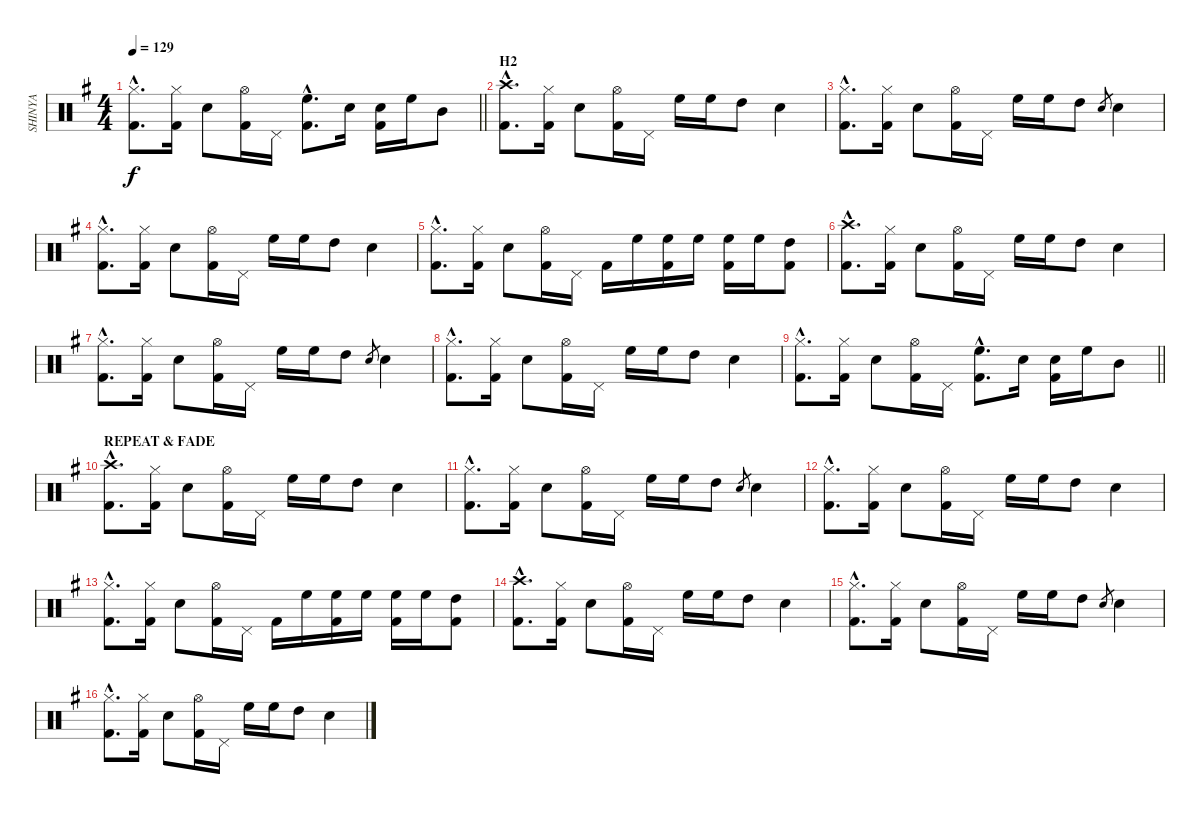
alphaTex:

\track ("SHINYA" "SHINYA") {instrument percussion}
\staff {score}
\articulation defaults
\ts (4 4)
\tempo 129
\clef neutral
\barLineRight lightlight
\ks g
("Hi-Hat (closed)"{hac} "Kick (hit) 2"{hac}).8{d dy f} ("Hi-Hat (closed)" "Kick (hit) 2").16 "Snare (hit) 2".8 ("Hi-Hat (open)" "Kick (hit) 2").16 "Pedal Hi-Hat (hit)".16 ("High Floor Tom (hit)"{hac} "Kick (hit) 2"{hac}).8{d} "Snare (hit) 2".16 ("Snare (hit) 2" "Kick (hit) 2").16 "High Floor Tom (hit)".16 "Mid Tom (hit)".8 |
\section ("" "H2")
("Crash high (hit)"{hac} "Kick (hit) 2"{hac}).8{d} ("Hi-Hat (closed)" "Kick (hit) 2").16 "Snare (hit) 2".8 ("Hi-Hat (open)" "Kick (hit) 2").16 "Pedal Hi-Hat (hit)".16 "High Floor Tom (hit)".16 "High Floor Tom (hit)".16 "High Tom (hit)".8 "Snare (hit) 2".4 |
("Hi-Hat (closed)"{hac} "Kick (hit) 2"{hac}).8{d} ("Hi-Hat (closed)" "Kick (hit) 2").16 "Snare (hit) 2".8 ("Hi-Hat (open)" "Kick (hit) 2").16 "Pedal Hi-Hat (hit)".16 "High Floor Tom (hit)".16 "High Floor Tom (hit)".16 "High Tom (hit)".8 "Snare (hit) 2".8{gr} "Snare (hit) 2".4 |
("Hi-Hat (closed)"{hac} "Kick (hit) 2"{hac}).8{d} ("Hi-Hat (closed)" "Kick (hit) 2").16 "Snare (hit) 2".8 ("Hi-Hat (open)" "Kick (hit) 2").16 "Pedal Hi-Hat (hit)".16 "High Floor Tom (hit)".16 "High Floor Tom (hit)".16 "High Tom (hit)".8 "Snare (hit) 2".4 |
("Hi-Hat (closed)"{hac} "Kick (hit) 2"{hac}).8{d} ("Hi-Hat (closed)" "Kick (hit) 2").16 "Snare (hit) 2".8 ("Hi-Hat (open)" "Kick (hit) 2").16 "Pedal Hi-Hat (hit)".16 "Kick (hit) 2".16 "High Floor Tom (hit)".16 ("High Floor Tom (hit)" "Kick (hit) 2").16 "High Floor Tom (hit)".16 ("High Floor Tom (hit)" "Kick (hit) 2").16 "High Floor Tom (hit)".16 ("High Tom (hit)" "Kick (hit) 2").8 |
("Crash high (hit)"{hac} "Kick (hit) 2"{hac}).8{d} ("Hi-Hat (closed)" "Kick (hit) 2").16 "Snare (hit) 2".8 ("Hi-Hat (open)" "Kick (hit) 2").16 "Pedal Hi-Hat (hit)".16 "High Floor Tom (hit)".16 "High Floor Tom (hit)".16 "High Tom (hit)".8 "Snare (hit) 2".4 |
("Hi-Hat (closed)"{hac} "Kick (hit) 2"{hac}).8{d} ("Hi-Hat (closed)" "Kick (hit) 2").16 "Snare (hit) 2".8 ("Hi-Hat (open)" "Kick (hit) 2").16 "Pedal Hi-Hat (hit)".16 "High Floor Tom (hit)".16 "High Floor Tom (hit)".16 "High Tom (hit)".8 "Snare (hit) 2".8{gr} "Snare (hit) 2".4 |
("Hi-Hat (closed)"{hac} "Kick (hit) 2"{hac}).8{d} ("Hi-Hat (closed)" "Kick (hit) 2").16 "Snare (hit) 2".8 ("Hi-Hat (open)" "Kick (hit) 2").16 "Pedal Hi-Hat (hit)".16 "High Floor Tom (hit)".16 "High Floor Tom (hit)".16 "High Tom (hit)".8 "Snare (hit) 2".4 |
\barLineRight lightlight
("Hi-Hat (closed)"{hac} "Kick (hit) 2"{hac}).8{d} ("Hi-Hat (closed)" "Kick (hit) 2").16 "Snare (hit) 2".8 ("Hi-Hat (open)" "Kick (hit) 2").16 "Pedal Hi-Hat (hit)".16 ("High Floor Tom (hit)"{hac} "Kick (hit) 2"{hac}).8{d} "Snare (hit) 2".16 ("Snare (hit) 2" "Kick (hit) 2").16 "High Floor Tom (hit)".16 "Mid Tom (hit)".8 |
\section ("" "REPEAT & FADE")
("Crash high (hit)"{hac} "Kick (hit) 2"{hac}).8{d} ("Hi-Hat (closed)" "Kick (hit) 2").16 "Snare (hit) 2".8 ("Hi-Hat (open)" "Kick (hit) 2").16 "Pedal Hi-Hat (hit)".16 "High Floor Tom (hit)".16 "High Floor Tom (hit)".16 "High Tom (hit)".8 "Snare (hit) 2".4 |
("Hi-Hat (closed)"{hac} "Kick (hit) 2"{hac}).8{d} ("Hi-Hat (closed)" "Kick (hit) 2").16 "Snare (hit) 2".8 ("Hi-Hat (open)" "Kick (hit) 2").16 "Pedal Hi-Hat (hit)".16 "High Floor Tom (hit)".16 "High Floor Tom (hit)".16 "High Tom (hit)".8 "Snare (hit) 2".8{gr} "Snare (hit) 2".4 |
("Hi-Hat (closed)"{hac} "Kick (hit) 2"{hac}).8{d} ("Hi-Hat (closed)" "Kick (hit) 2").16 "Snare (hit) 2".8 ("Hi-Hat (open)" "Kick (hit) 2").16 "Pedal Hi-Hat (hit)".16 "High Floor Tom (hit)".16 "High Floor Tom (hit)".16 "High Tom (hit)".8 "Snare (hit) 2".4 |
("Hi-Hat (closed)"{hac} "Kick (hit) 2"{hac}).8{d} ("Hi-Hat (closed)" "Kick (hit) 2").16 "Snare (hit) 2".8 ("Hi-Hat (open)" "Kick (hit) 2").16 "Pedal Hi-Hat (hit)".16 "Kick (hit) 2".16 "High Floor Tom (hit)".16 ("High Floor Tom (hit)" "Kick (hit) 2").16 "High Floor Tom (hit)".16 ("High Floor Tom (hit)" "Kick (hit) 2").16 "High Floor Tom (hit)".16 ("High Tom (hit)" "Kick (hit) 2").8 |
("Crash high (hit)"{hac} "Kick (hit) 2"{hac}).8{d} ("Hi-Hat (closed)" "Kick (hit) 2").16 "Snare (hit) 2".8 ("Hi-Hat (open)" "Kick (hit) 2").16 "Pedal Hi-Hat (hit)".16 "High Floor Tom (hit)".16 "High Floor Tom (hit)".16 "High Tom (hit)".8 "Snare (hit) 2".4 |
("Hi-Hat (closed)"{hac} "Kick (hit) 2"{hac}).8{d} ("Hi-Hat (closed)" "Kick (hit) 2").16 "Snare (hit) 2".8 ("Hi-Hat (open)" "Kick (hit) 2").16 "Pedal Hi-Hat (hit)".16 "High Floor Tom (hit)".16 "High Floor Tom (hit)".16 "High Tom (hit)".8 "Snare (hit) 2".8{gr} "Snare (hit) 2".4 |
("Hi-Hat (closed)"{hac} "Kick (hit) 2"{hac}).8{d} ("Hi-Hat (closed)" "Kick (hit) 2").16 "Snare (hit) 2".8 ("Hi-Hat (open)" "Kick (hit) 2").16 "Pedal Hi-Hat (hit)".16 "High Floor Tom (hit)".16 "High Floor Tom (hit)".16 "High Tom (hit)".8 "Snare (hit) 2".4
